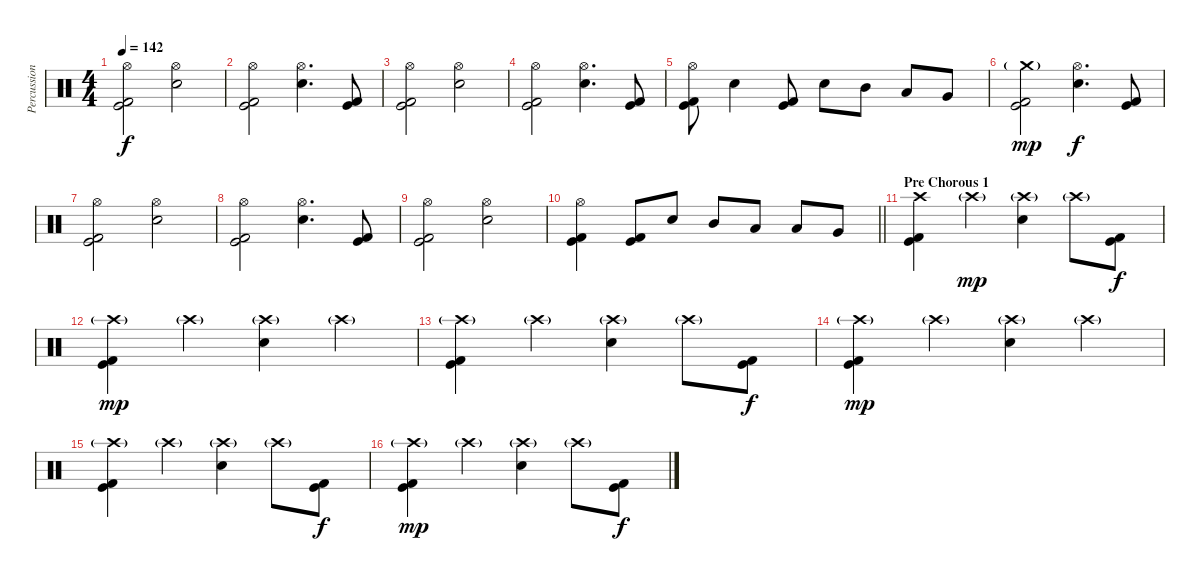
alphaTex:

\track ("Percussion" "Percussion") {instrument percussion}
\staff {score}
\articulation defaults
\ts (4 4)
\tempo 142
\clef neutral
\ks c
("Hi-Hat (open)" "Kick (hit)" "Kick (hit) 2").2{dy f} ("Hi-Hat (open)" "Electric Snare (hit)").2 |
("Hi-Hat (open)" "Kick (hit)" "Kick (hit) 2").2 ("Hi-Hat (open)" "Electric Snare (hit)").4{d} ("Kick (hit)" "Kick (hit) 2").8 |
("Hi-Hat (open)" "Kick (hit)" "Kick (hit) 2").2 ("Hi-Hat (open)" "Electric Snare (hit)").2 |
("Hi-Hat (open)" "Kick (hit)" "Kick (hit) 2").2 ("Hi-Hat (open)" "Electric Snare (hit)").4{d} ("Kick (hit)" "Kick (hit) 2").8 |
("Hi-Hat (open)" "Kick (hit)" "Kick (hit) 2").8 "Electric Snare (hit)".4 ("Kick (hit)" "Kick (hit) 2").8 "Electric Snare (hit)".8 "Mid Tom (hit)".8 "Low Tom (hit)".8 "Very Low Tom (hit)".8 |
("Crash medium (hit)"{g} "Kick (hit)" "Kick (hit) 2").2{dy mp} ("Hi-Hat (open)" "Electric Snare (hit)").4{d dy f} ("Kick (hit)" "Kick (hit) 2").8 |
("Hi-Hat (open)" "Kick (hit)" "Kick (hit) 2").2 ("Hi-Hat (open)" "Electric Snare (hit)").2 |
("Hi-Hat (open)" "Kick (hit)" "Kick (hit) 2").2 ("Hi-Hat (open)" "Electric Snare (hit)").4{d} ("Kick (hit)" "Kick (hit) 2").8 |
("Hi-Hat (open)" "Kick (hit)" "Kick (hit) 2").2 ("Hi-Hat (open)" "Electric Snare (hit)").2 |
\barLineRight lightlight
("Hi-Hat (open)" "Kick (hit)" "Kick (hit) 2").4 ("Kick (hit)" "Kick (hit) 2").8 "Electric Snare (hit)".8 "Mid Tom (hit)".8 "Low Tom (hit)".8 "Low Tom (hit)".8 "Very Low Tom (hit)".8 |
\section ("" "Pre Chorous 1")
("Crash high (hit)" "Kick (hit)" "Kick (hit) 2").4 "Crash high (hit)"{g}.4{dy mp} ("Crash high (hit)"{g} "Electric Snare (hit)").4 "Crash high (hit)"{g}.8 ("Kick (hit)" "Kick (hit) 2").8{dy f} |
("Crash high (hit)"{g} "Kick (hit)" "Kick (hit) 2").4{dy mp} "Crash high (hit)"{g}.4 ("Crash high (hit)"{g} "Electric Snare (hit)").4 "Crash high (hit)"{g}.4 |
("Crash high (hit)"{g} "Kick (hit)" "Kick (hit) 2").4 "Crash high (hit)"{g}.4 ("Crash high (hit)"{g} "Electric Snare (hit)").4 "Crash high (hit)"{g}.8 ("Kick (hit)" "Kick (hit) 2").8{dy f} |
("Crash high (hit)"{g} "Kick (hit)" "Kick (hit) 2").4{dy mp} "Crash high (hit)"{g}.4 ("Crash high (hit)"{g} "Electric Snare (hit)").4 "Crash high (hit)"{g}.4 |
("Crash high (hit)"{g} "Kick (hit)" "Kick (hit) 2").4 "Crash high (hit)"{g}.4 ("Crash high (hit)"{g} "Electric Snare (hit)").4 "Crash high (hit)"{g}.8 ("Kick (hit)" "Kick (hit) 2").8{dy f} |
("Crash high (hit)"{g} "Kick (hit)" "Kick (hit) 2").4{dy mp} "Crash high (hit)"{g}.4 ("Crash high (hit)"{g} "Electric Snare (hit)").4 "Crash high (hit)"{g}.8 ("Kick (hit)" "Kick (hit) 2").8{dy f}
